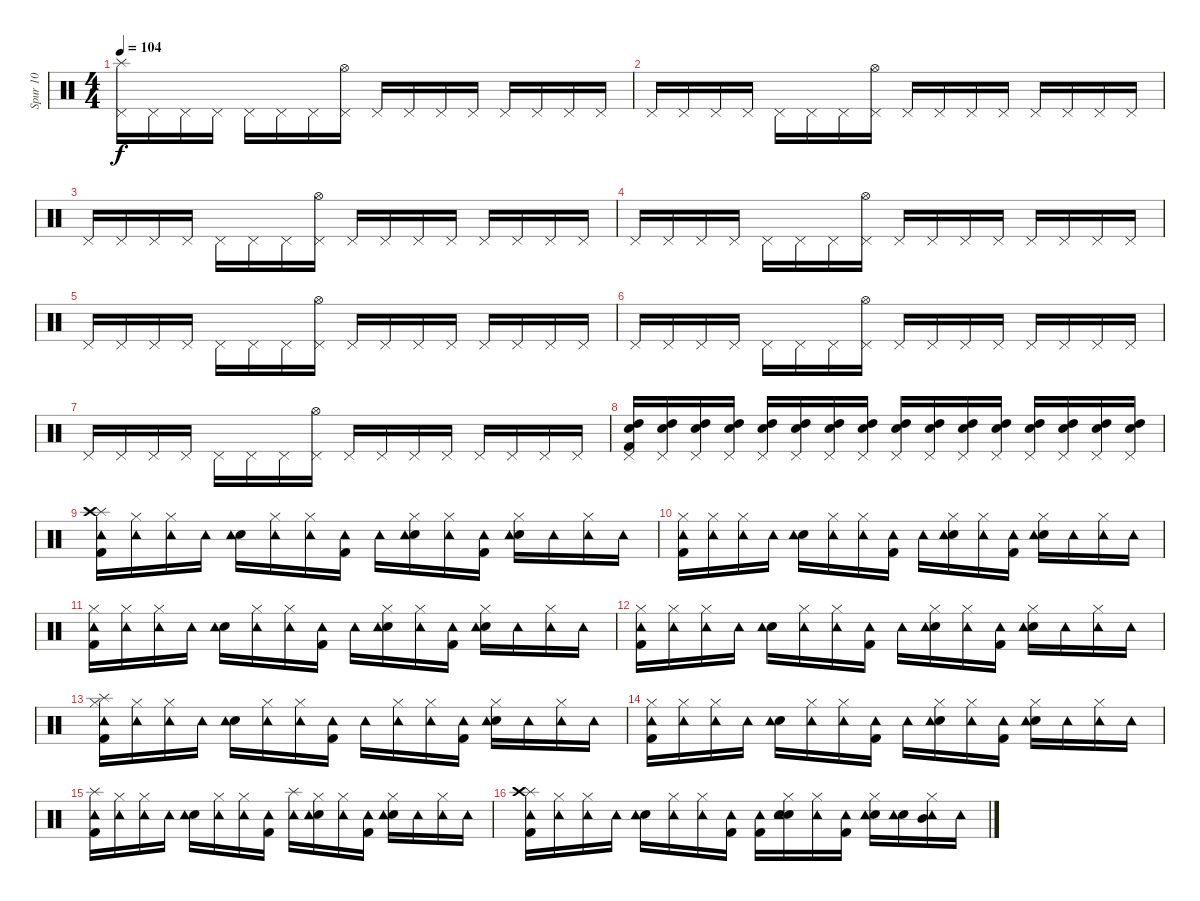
\track ("Spur 10" "Spur 10") {instrument percussion}
\staff {score}
\articulation defaults
\ts (4 4)
\tempo 104
\clef neutral
\ks c
("Pedal Hi-Hat (hit)" "Splash (hit)").16{dy f} "Pedal Hi-Hat (hit)".16 "Pedal Hi-Hat (hit)".16 "Pedal Hi-Hat (hit)".16 "Pedal Hi-Hat (hit)".16 "Pedal Hi-Hat (hit)".16 "Pedal Hi-Hat (hit)".16 ("Hi-Hat (open)" "Pedal Hi-Hat (hit)").16 "Pedal Hi-Hat (hit)".16 "Pedal Hi-Hat (hit)".16 "Pedal Hi-Hat (hit)".16 "Pedal Hi-Hat (hit)".16 "Pedal Hi-Hat (hit)".16 "Pedal Hi-Hat (hit)".16 "Pedal Hi-Hat (hit)".16 "Pedal Hi-Hat (hit)".16 |
"Pedal Hi-Hat (hit)".16 "Pedal Hi-Hat (hit)".16 "Pedal Hi-Hat (hit)".16 "Pedal Hi-Hat (hit)".16 "Pedal Hi-Hat (hit)".16 "Pedal Hi-Hat (hit)".16 "Pedal Hi-Hat (hit)".16 ("Hi-Hat (open)" "Pedal Hi-Hat (hit)").16 "Pedal Hi-Hat (hit)".16 "Pedal Hi-Hat (hit)".16 "Pedal Hi-Hat (hit)".16 "Pedal Hi-Hat (hit)".16 "Pedal Hi-Hat (hit)".16 "Pedal Hi-Hat (hit)".16 "Pedal Hi-Hat (hit)".16 "Pedal Hi-Hat (hit)".16 |
"Pedal Hi-Hat (hit)".16 "Pedal Hi-Hat (hit)".16 "Pedal Hi-Hat (hit)".16 "Pedal Hi-Hat (hit)".16 "Pedal Hi-Hat (hit)".16 "Pedal Hi-Hat (hit)".16 "Pedal Hi-Hat (hit)".16 ("Hi-Hat (open)" "Pedal Hi-Hat (hit)").16 "Pedal Hi-Hat (hit)".16 "Pedal Hi-Hat (hit)".16 "Pedal Hi-Hat (hit)".16 "Pedal Hi-Hat (hit)".16 "Pedal Hi-Hat (hit)".16 "Pedal Hi-Hat (hit)".16 "Pedal Hi-Hat (hit)".16 "Pedal Hi-Hat (hit)".16 |
"Pedal Hi-Hat (hit)".16 "Pedal Hi-Hat (hit)".16 "Pedal Hi-Hat (hit)".16 "Pedal Hi-Hat (hit)".16 "Pedal Hi-Hat (hit)".16 "Pedal Hi-Hat (hit)".16 "Pedal Hi-Hat (hit)".16 ("Hi-Hat (open)" "Pedal Hi-Hat (hit)").16 "Pedal Hi-Hat (hit)".16 "Pedal Hi-Hat (hit)".16 "Pedal Hi-Hat (hit)".16 "Pedal Hi-Hat (hit)".16 "Pedal Hi-Hat (hit)".16 "Pedal Hi-Hat (hit)".16 "Pedal Hi-Hat (hit)".16 "Pedal Hi-Hat (hit)".16 |
"Pedal Hi-Hat (hit)".16 "Pedal Hi-Hat (hit)".16 "Pedal Hi-Hat (hit)".16 "Pedal Hi-Hat (hit)".16 "Pedal Hi-Hat (hit)".16 "Pedal Hi-Hat (hit)".16 "Pedal Hi-Hat (hit)".16 ("Hi-Hat (open)" "Pedal Hi-Hat (hit)").16 "Pedal Hi-Hat (hit)".16 "Pedal Hi-Hat (hit)".16 "Pedal Hi-Hat (hit)".16 "Pedal Hi-Hat (hit)".16 "Pedal Hi-Hat (hit)".16 "Pedal Hi-Hat (hit)".16 "Pedal Hi-Hat (hit)".16 "Pedal Hi-Hat (hit)".16 |
"Pedal Hi-Hat (hit)".16 "Pedal Hi-Hat (hit)".16 "Pedal Hi-Hat (hit)".16 "Pedal Hi-Hat (hit)".16 "Pedal Hi-Hat (hit)".16 "Pedal Hi-Hat (hit)".16 "Pedal Hi-Hat (hit)".16 ("Hi-Hat (open)" "Pedal Hi-Hat (hit)").16 "Pedal Hi-Hat (hit)".16 "Pedal Hi-Hat (hit)".16 "Pedal Hi-Hat (hit)".16 "Pedal Hi-Hat (hit)".16 "Pedal Hi-Hat (hit)".16 "Pedal Hi-Hat (hit)".16 "Pedal Hi-Hat (hit)".16 "Pedal Hi-Hat (hit)".16 |
"Pedal Hi-Hat (hit)".16 "Pedal Hi-Hat (hit)".16 "Pedal Hi-Hat (hit)".16 "Pedal Hi-Hat (hit)".16 "Pedal Hi-Hat (hit)".16 "Pedal Hi-Hat (hit)".16 "Pedal Hi-Hat (hit)".16 ("Hi-Hat (open)" "Pedal Hi-Hat (hit)").16 "Pedal Hi-Hat (hit)".16 "Pedal Hi-Hat (hit)".16 "Pedal Hi-Hat (hit)".16 "Pedal Hi-Hat (hit)".16 "Pedal Hi-Hat (hit)".16 "Pedal Hi-Hat (hit)".16 "Pedal Hi-Hat (hit)".16 "Pedal Hi-Hat (hit)".16 |
("Kick (hit) 2" "High Tom (hit)" "Electric Snare (hit)" "Pedal Hi-Hat (hit)").16 ("High Tom (hit)" "Electric Snare (hit)" "Pedal Hi-Hat (hit)").16 ("High Tom (hit)" "Electric Snare (hit)" "Pedal Hi-Hat (hit)").16 ("High Tom (hit)" "Electric Snare (hit)" "Pedal Hi-Hat (hit)").16 ("High Tom (hit)" "Electric Snare (hit)" "Pedal Hi-Hat (hit)").16 ("High Tom (hit)" "Electric Snare (hit)" "Pedal Hi-Hat (hit)").16 ("High Tom (hit)" "Electric Snare (hit)" "Pedal Hi-Hat (hit)").16 ("High Tom (hit)" "Electric Snare (hit)" "Pedal Hi-Hat (hit)").16 ("High Tom (hit)" "Electric Snare (hit)" "Pedal Hi-Hat (hit)").16 ("High Tom (hit)" "Electric Snare (hit)" "Pedal Hi-Hat (hit)").16 ("High Tom (hit)" "Electric Snare (hit)" "Pedal Hi-Hat (hit)").16 ("High Tom (hit)" "Electric Snare (hit)" "Pedal Hi-Hat (hit)").16 ("High Tom (hit)" "Electric Snare (hit)" "Pedal Hi-Hat (hit)").16 ("High Tom (hit)" "Electric Snare (hit)" "Pedal Hi-Hat (hit)").16 ("High Tom (hit)" "Electric Snare (hit)" "Pedal Hi-Hat (hit)").16 ("High Tom (hit)" "Electric Snare (hit)" "Pedal Hi-Hat (hit)").16 |
("Tambourine (hit)" "Splash (hit)" "Crash high (hit)" "Kick (hit) 2").16 ("Hi-Hat (closed)" "Tambourine (hit)").16 ("Hi-Hat (closed)" "Tambourine (hit)").16 "Tambourine (hit)".16 ("Electric Snare (hit)" "Tambourine (hit)").16 ("Hi-Hat (closed)" "Tambourine (hit)").16 ("Hi-Hat (closed)" "Tambourine (hit)").16 ("Kick (hit) 2" "Tambourine (hit)").16 "Tambourine (hit)".16 ("Electric Snare (hit)" "Hi-Hat (closed)" "Tambourine (hit)").16 ("Hi-Hat (closed)" "Tambourine (hit)").16 ("Kick (hit) 2" "Tambourine (hit)").16 ("Electric Snare (hit)" "Hi-Hat (closed)" "Tambourine (hit)").16 "Tambourine (hit)".16 ("Hi-Hat (closed)" "Tambourine (hit)").16 "Tambourine (hit)".16 |
("Hi-Hat (closed)" "Kick (hit) 2" "Tambourine (hit)").16 ("Hi-Hat (closed)" "Tambourine (hit)").16 ("Hi-Hat (closed)" "Tambourine (hit)").16 "Tambourine (hit)".16 ("Electric Snare (hit)" "Tambourine (hit)").16 ("Hi-Hat (closed)" "Tambourine (hit)").16 ("Hi-Hat (closed)" "Tambourine (hit)").16 ("Kick (hit) 2" "Tambourine (hit)").16 "Tambourine (hit)".16 ("Hi-Hat (closed)" "Electric Snare (hit)" "Tambourine (hit)").16 ("Hi-Hat (closed)" "Tambourine (hit)").16 ("Kick (hit) 2" "Tambourine (hit)").16 ("Hi-Hat (closed)" "Electric Snare (hit)" "Tambourine (hit)").16 "Tambourine (hit)".16 ("Hi-Hat (closed)" "Tambourine (hit)").16 "Tambourine (hit)".16 |
("Hi-Hat (closed)" "Kick (hit) 2" "Tambourine (hit)").16 ("Hi-Hat (closed)" "Tambourine (hit)").16 ("Hi-Hat (closed)" "Tambourine (hit)").16 "Tambourine (hit)".16 ("Electric Snare (hit)" "Tambourine (hit)").16 ("Hi-Hat (closed)" "Tambourine (hit)").16 ("Hi-Hat (closed)" "Tambourine (hit)").16 ("Kick (hit) 2" "Tambourine (hit)").16 "Tambourine (hit)".16 ("Hi-Hat (closed)" "Electric Snare (hit)" "Tambourine (hit)").16 ("Hi-Hat (closed)" "Tambourine (hit)").16 ("Kick (hit) 2" "Tambourine (hit)").16 ("Hi-Hat (closed)" "Electric Snare (hit)" "Tambourine (hit)").16 "Tambourine (hit)".16 ("Hi-Hat (closed)" "Tambourine (hit)").16 "Tambourine (hit)".16 |
("Hi-Hat (closed)" "Kick (hit) 2" "Tambourine (hit)").16 ("Hi-Hat (closed)" "Tambourine (hit)").16 ("Hi-Hat (closed)" "Tambourine (hit)").16 "Tambourine (hit)".16 ("Electric Snare (hit)" "Tambourine (hit)").16 ("Hi-Hat (closed)" "Tambourine (hit)").16 ("Hi-Hat (closed)" "Tambourine (hit)").16 ("Kick (hit) 2" "Tambourine (hit)").16 "Tambourine (hit)".16 ("Hi-Hat (closed)" "Electric Snare (hit)" "Tambourine (hit)").16 ("Hi-Hat (closed)" "Tambourine (hit)").16 ("Kick (hit) 2" "Tambourine (hit)").16 ("Hi-Hat (closed)" "Electric Snare (hit)" "Tambourine (hit)").16 "Tambourine (hit)".16 ("Hi-Hat (closed)" "Tambourine (hit)").16 "Tambourine (hit)".16 |
("Splash (hit)" "Hi-Hat (closed)" "Kick (hit) 2" "Tambourine (hit)").16 ("Hi-Hat (closed)" "Tambourine (hit)").16 ("Hi-Hat (closed)" "Tambourine (hit)").16 "Tambourine (hit)".16 ("Electric Snare (hit)" "Tambourine (hit)").16 ("Hi-Hat (closed)" "Tambourine (hit)").16 ("Hi-Hat (closed)" "Tambourine (hit)").16 ("Kick (hit) 2" "Tambourine (hit)").16 "Tambourine (hit)".16 ("Hi-Hat (closed)" "Tambourine (hit)").16 ("Hi-Hat (closed)" "Tambourine (hit)").16 ("Kick (hit) 2" "Tambourine (hit)").16 ("Hi-Hat (closed)" "Electric Snare (hit)" "Tambourine (hit)").16 "Tambourine (hit)".16 ("Hi-Hat (closed)" "Tambourine (hit)").16 "Tambourine (hit)".16 |
("Hi-Hat (closed)" "Kick (hit) 2" "Tambourine (hit)").16 ("Hi-Hat (closed)" "Tambourine (hit)").16 ("Hi-Hat (closed)" "Tambourine (hit)").16 "Tambourine (hit)".16 ("Electric Snare (hit)" "Tambourine (hit)").16 ("Hi-Hat (closed)" "Tambourine (hit)").16 ("Hi-Hat (closed)" "Tambourine (hit)").16 ("Kick (hit) 2" "Tambourine (hit)").16 "Tambourine (hit)".16 ("Hi-Hat (closed)" "Electric Snare (hit)" "Tambourine (hit)").16 ("Hi-Hat (closed)" "Tambourine (hit)").16 ("Kick (hit) 2" "Tambourine (hit)").16 ("Hi-Hat (closed)" "Electric Snare (hit)" "Tambourine (hit)").16 "Tambourine (hit)".16 ("Hi-Hat (closed)" "Tambourine (hit)").16 "Tambourine (hit)".16 |
("Kick (hit) 2" "Tambourine (hit)" "Splash (hit)").16 ("Hi-Hat (closed)" "Tambourine (hit)").16 ("Hi-Hat (closed)" "Tambourine (hit)").16 "Tambourine (hit)".16 ("Electric Snare (hit)" "Tambourine (hit)").16 ("Hi-Hat (closed)" "Tambourine (hit)").16 ("Hi-Hat (closed)" "Tambourine (hit)").16 ("Kick (hit) 2" "Tambourine (hit)").16 ("Splash (hit)" "Tambourine (hit)").16 ("Hi-Hat (closed)" "Electric Snare (hit)" "Tambourine (hit)").16 ("Hi-Hat (closed)" "Tambourine (hit)").16 ("Kick (hit) 2" "Tambourine (hit)").16 ("Hi-Hat (closed)" "Electric Snare (hit)" "Tambourine (hit)").16 "Tambourine (hit)".16 ("Hi-Hat (closed)" "Tambourine (hit)").16 "Tambourine (hit)".16 |
("Tambourine (hit)" "Kick (hit) 2" "Splash (hit)" "Crash high (hit)").16 ("Hi-Hat (closed)" "Tambourine (hit)").16 ("Hi-Hat (closed)" "Tambourine (hit)").16 "Tambourine (hit)".16 ("Electric Snare (hit)" "Tambourine (hit)").16 ("Hi-Hat (closed)" "Tambourine (hit)").16 ("Hi-Hat (closed)" "Tambourine (hit)").16 ("Kick (hit) 2" "Tambourine (hit)").16 ("Kick (hit) 2" "Tambourine (hit)").16 ("Snare (hit) 2" "Electric Snare (hit)" "Hi-Hat (closed)" "Tambourine (hit)").16 ("Hi-Hat (closed)" "Tambourine (hit)").16 ("Kick (hit) 2" "Tambourine (hit)").16 ("Electric Snare (hit)" "Hi-Hat (closed)" "Tambourine (hit)").16 ("Electric Snare (hit)" "Tambourine (hit)").16 ("Mid Tom (hit)" "Hi-Hat (closed)" "Tambourine (hit)").16 "Tambourine (hit)".16
